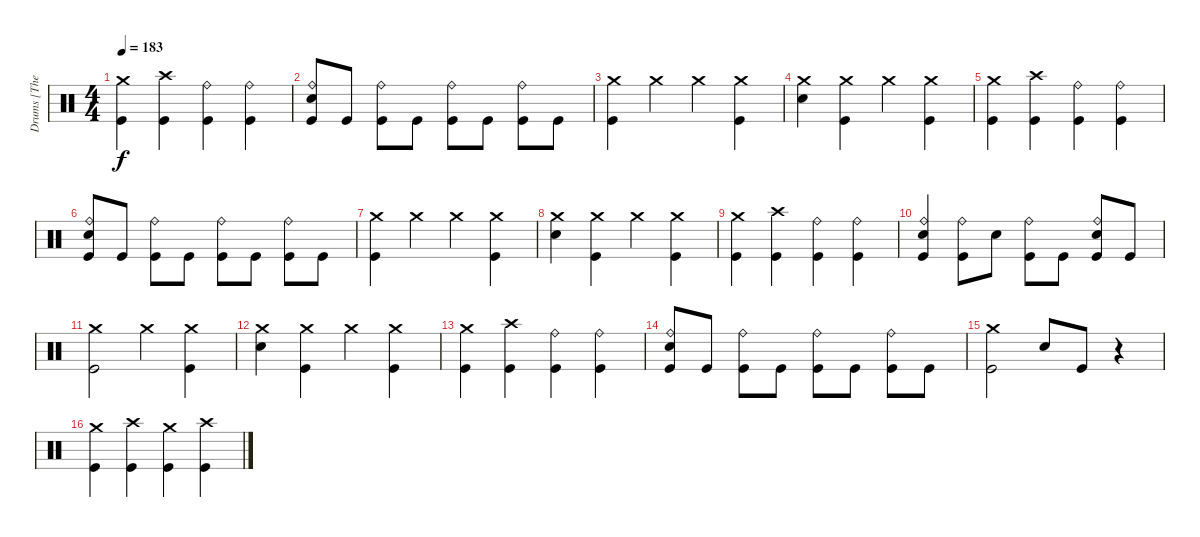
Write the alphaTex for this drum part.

\track ("Drums [The Rev]" "Drums [The") {instrument percussion}
\staff {score}
\articulation defaults
\ts (4 4)
\tempo 183
\clef neutral
\ks c
("Crash medium (hit)" "Kick (hit)").4{dy f} ("Crash high (hit)" "Kick (hit)").4 ("Ride (bell)" "Kick (hit)").4 ("Ride (bell)" "Kick (hit)").4 |
("Ride (bell)" "Snare (hit) 2" "Kick (hit)").8 "Kick (hit)".8 ("Ride (bell)" "Kick (hit)").8 "Kick (hit)".8 ("Ride (bell)" "Kick (hit)").8 "Kick (hit)".8 ("Ride (bell)" "Kick (hit)").8 "Kick (hit)".8 |
("Crash medium (hit)" "Kick (hit)").4 "Crash medium (hit)".4 "Crash medium (hit)".4 ("Crash medium (hit)" "Kick (hit)").4 |
("Crash medium (hit)" "Snare (hit) 2").4 ("Crash medium (hit)" "Kick (hit)").4 "Crash medium (hit)".4 ("Crash medium (hit)" "Kick (hit)").4 |
("Crash medium (hit)" "Kick (hit)").4 ("Crash high (hit)" "Kick (hit)").4 ("Ride (bell)" "Kick (hit)").4 ("Ride (bell)" "Kick (hit)").4 |
("Ride (bell)" "Snare (hit) 2" "Kick (hit)").8 "Kick (hit)".8 ("Ride (bell)" "Kick (hit)").8 "Kick (hit)".8 ("Ride (bell)" "Kick (hit)").8 "Kick (hit)".8 ("Ride (bell)" "Kick (hit)").8 "Kick (hit)".8 |
("Crash medium (hit)" "Kick (hit)").4 "Crash medium (hit)".4 "Crash medium (hit)".4 ("Crash medium (hit)" "Kick (hit)").4 |
("Crash medium (hit)" "Snare (hit) 2").4 ("Crash medium (hit)" "Kick (hit)").4 "Crash medium (hit)".4 ("Crash medium (hit)" "Kick (hit)").4 |
("Crash medium (hit)" "Kick (hit)").4 ("Crash high (hit)" "Kick (hit)").4 ("Ride (bell)" "Kick (hit)").4 ("Ride (bell)" "Kick (hit)").4 |
("Ride (bell)" "Snare (hit) 2" "Kick (hit)").4 ("Ride (bell)" "Kick (hit)").8 "Snare (hit) 2".8 ("Ride (bell)" "Kick (hit)").8 "Kick (hit)".8 ("Ride (bell)" "Snare (hit) 2" "Kick (hit)").8 "Kick (hit)".8 |
("Crash medium (hit)" "Kick (hit)").2 "Crash medium (hit)".4 ("Crash medium (hit)" "Kick (hit)").4 |
("Crash medium (hit)" "Snare (hit) 2").4 ("Crash medium (hit)" "Kick (hit)").4 "Crash medium (hit)".4 ("Crash medium (hit)" "Kick (hit)").4 |
("Crash medium (hit)" "Kick (hit)").4 ("Crash high (hit)" "Kick (hit)").4 ("Ride (bell)" "Kick (hit)").4 ("Ride (bell)" "Kick (hit)").4 |
("Ride (bell)" "Snare (hit) 2" "Kick (hit)").8 "Kick (hit)".8 ("Ride (bell)" "Kick (hit)").8 "Kick (hit)".8 ("Ride (bell)" "Kick (hit)").8 "Kick (hit)".8 ("Ride (bell)" "Kick (hit)").8 "Kick (hit)".8 |
("Crash medium (hit)" "Kick (hit)").2 "Snare (hit) 2".8 "Kick (hit)".8 r.4 |
("Crash medium (hit)" "Kick (hit)").4 ("Crash high (hit)" "Kick (hit)").4 ("Crash medium (hit)" "Kick (hit)").4 ("Crash high (hit)" "Kick (hit)").4
